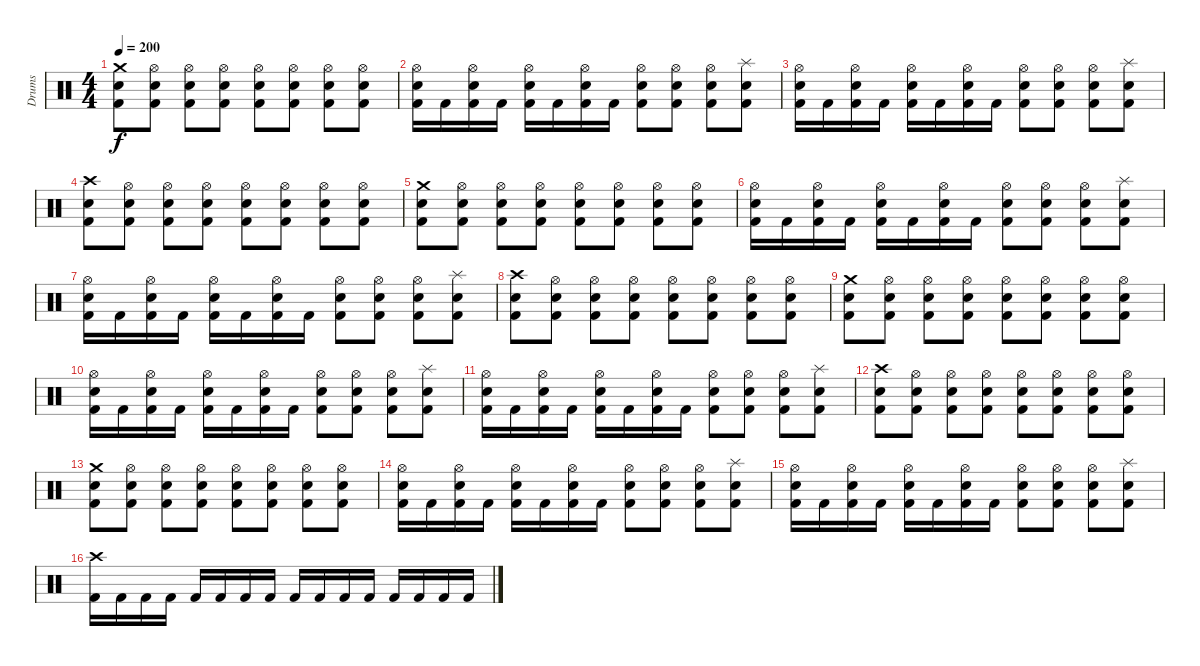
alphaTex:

\track ("Drums" "Drums") {instrument percussion}
\staff {score}
\articulation defaults
\ts (4 4)
\tempo 200
\clef neutral
\ks c
("Crash medium (hit)" "Snare (hit) 2" "Kick (hit) 2").8{dy f} ("Hi-Hat (open)" "Snare (hit) 2" "Kick (hit) 2").8 ("Hi-Hat (open)" "Snare (hit) 2" "Kick (hit) 2").8 ("Hi-Hat (open)" "Snare (hit) 2" "Kick (hit) 2").8 ("Hi-Hat (open)" "Snare (hit) 2" "Kick (hit) 2").8 ("Hi-Hat (open)" "Snare (hit) 2" "Kick (hit) 2").8 ("Hi-Hat (open)" "Snare (hit) 2" "Kick (hit) 2").8 ("Hi-Hat (open)" "Snare (hit) 2" "Kick (hit) 2").8 |
("Hi-Hat (open)" "Snare (hit) 2" "Kick (hit) 2").16 "Kick (hit) 2".16 ("Hi-Hat (open)" "Snare (hit) 2" "Kick (hit) 2").16 "Kick (hit) 2".16 ("Hi-Hat (open)" "Snare (hit) 2" "Kick (hit) 2").16 "Kick (hit) 2".16 ("Hi-Hat (open)" "Snare (hit) 2" "Kick (hit) 2").16 "Kick (hit) 2".16 ("Hi-Hat (open)" "Snare (hit) 2" "Kick (hit) 2").8 ("Hi-Hat (open)" "Snare (hit) 2" "Kick (hit) 2").8 ("Hi-Hat (open)" "Snare (hit) 2" "Kick (hit) 2").8 ("Splash (hit)" "Snare (hit) 2" "Kick (hit) 2").8 |
("Hi-Hat (open)" "Snare (hit) 2" "Kick (hit) 2").16 "Kick (hit) 2".16 ("Hi-Hat (open)" "Snare (hit) 2" "Kick (hit) 2").16 "Kick (hit) 2".16 ("Hi-Hat (open)" "Snare (hit) 2" "Kick (hit) 2").16 "Kick (hit) 2".16 ("Hi-Hat (open)" "Snare (hit) 2" "Kick (hit) 2").16 "Kick (hit) 2".16 ("Hi-Hat (open)" "Snare (hit) 2" "Kick (hit) 2").8 ("Hi-Hat (open)" "Snare (hit) 2" "Kick (hit) 2").8 ("Hi-Hat (open)" "Snare (hit) 2" "Kick (hit) 2").8 ("Splash (hit)" "Snare (hit) 2" "Kick (hit) 2").8 |
("Crash high (hit)" "Snare (hit) 2" "Kick (hit) 2").8 ("Hi-Hat (open)" "Snare (hit) 2" "Kick (hit) 2").8 ("Hi-Hat (open)" "Snare (hit) 2" "Kick (hit) 2").8 ("Hi-Hat (open)" "Snare (hit) 2" "Kick (hit) 2").8 ("Hi-Hat (open)" "Snare (hit) 2" "Kick (hit) 2").8 ("Hi-Hat (open)" "Snare (hit) 2" "Kick (hit) 2").8 ("Hi-Hat (open)" "Snare (hit) 2" "Kick (hit) 2").8 ("Hi-Hat (open)" "Snare (hit) 2" "Kick (hit) 2").8 |
("Crash medium (hit)" "Snare (hit) 2" "Kick (hit) 2").8 ("Hi-Hat (open)" "Snare (hit) 2" "Kick (hit) 2").8 ("Hi-Hat (open)" "Snare (hit) 2" "Kick (hit) 2").8 ("Hi-Hat (open)" "Snare (hit) 2" "Kick (hit) 2").8 ("Hi-Hat (open)" "Snare (hit) 2" "Kick (hit) 2").8 ("Hi-Hat (open)" "Snare (hit) 2" "Kick (hit) 2").8 ("Hi-Hat (open)" "Snare (hit) 2" "Kick (hit) 2").8 ("Hi-Hat (open)" "Snare (hit) 2" "Kick (hit) 2").8 |
("Hi-Hat (open)" "Snare (hit) 2" "Kick (hit) 2").16 "Kick (hit) 2".16 ("Hi-Hat (open)" "Snare (hit) 2" "Kick (hit) 2").16 "Kick (hit) 2".16 ("Hi-Hat (open)" "Snare (hit) 2" "Kick (hit) 2").16 "Kick (hit) 2".16 ("Hi-Hat (open)" "Snare (hit) 2" "Kick (hit) 2").16 "Kick (hit) 2".16 ("Hi-Hat (open)" "Snare (hit) 2" "Kick (hit) 2").8 ("Hi-Hat (open)" "Snare (hit) 2" "Kick (hit) 2").8 ("Hi-Hat (open)" "Snare (hit) 2" "Kick (hit) 2").8 ("Splash (hit)" "Snare (hit) 2" "Kick (hit) 2").8 |
("Hi-Hat (open)" "Snare (hit) 2" "Kick (hit) 2").16 "Kick (hit) 2".16 ("Hi-Hat (open)" "Snare (hit) 2" "Kick (hit) 2").16 "Kick (hit) 2".16 ("Hi-Hat (open)" "Snare (hit) 2" "Kick (hit) 2").16 "Kick (hit) 2".16 ("Hi-Hat (open)" "Snare (hit) 2" "Kick (hit) 2").16 "Kick (hit) 2".16 ("Hi-Hat (open)" "Snare (hit) 2" "Kick (hit) 2").8 ("Hi-Hat (open)" "Snare (hit) 2" "Kick (hit) 2").8 ("Hi-Hat (open)" "Snare (hit) 2" "Kick (hit) 2").8 ("Splash (hit)" "Snare (hit) 2" "Kick (hit) 2").8 |
("Crash high (hit)" "Snare (hit) 2" "Kick (hit) 2").8 ("Hi-Hat (open)" "Snare (hit) 2" "Kick (hit) 2").8 ("Hi-Hat (open)" "Snare (hit) 2" "Kick (hit) 2").8 ("Hi-Hat (open)" "Snare (hit) 2" "Kick (hit) 2").8 ("Hi-Hat (open)" "Snare (hit) 2" "Kick (hit) 2").8 ("Hi-Hat (open)" "Snare (hit) 2" "Kick (hit) 2").8 ("Hi-Hat (open)" "Snare (hit) 2" "Kick (hit) 2").8 ("Hi-Hat (open)" "Snare (hit) 2" "Kick (hit) 2").8 |
("Crash medium (hit)" "Snare (hit) 2" "Kick (hit) 2").8 ("Hi-Hat (open)" "Snare (hit) 2" "Kick (hit) 2").8 ("Hi-Hat (open)" "Snare (hit) 2" "Kick (hit) 2").8 ("Hi-Hat (open)" "Snare (hit) 2" "Kick (hit) 2").8 ("Hi-Hat (open)" "Snare (hit) 2" "Kick (hit) 2").8 ("Hi-Hat (open)" "Snare (hit) 2" "Kick (hit) 2").8 ("Hi-Hat (open)" "Snare (hit) 2" "Kick (hit) 2").8 ("Hi-Hat (open)" "Snare (hit) 2" "Kick (hit) 2").8 |
("Hi-Hat (open)" "Snare (hit) 2" "Kick (hit) 2").16 "Kick (hit) 2".16 ("Hi-Hat (open)" "Snare (hit) 2" "Kick (hit) 2").16 "Kick (hit) 2".16 ("Hi-Hat (open)" "Snare (hit) 2" "Kick (hit) 2").16 "Kick (hit) 2".16 ("Hi-Hat (open)" "Snare (hit) 2" "Kick (hit) 2").16 "Kick (hit) 2".16 ("Hi-Hat (open)" "Snare (hit) 2" "Kick (hit) 2").8 ("Hi-Hat (open)" "Snare (hit) 2" "Kick (hit) 2").8 ("Hi-Hat (open)" "Snare (hit) 2" "Kick (hit) 2").8 ("Splash (hit)" "Snare (hit) 2" "Kick (hit) 2").8 |
("Hi-Hat (open)" "Snare (hit) 2" "Kick (hit) 2").16 "Kick (hit) 2".16 ("Hi-Hat (open)" "Snare (hit) 2" "Kick (hit) 2").16 "Kick (hit) 2".16 ("Hi-Hat (open)" "Snare (hit) 2" "Kick (hit) 2").16 "Kick (hit) 2".16 ("Hi-Hat (open)" "Snare (hit) 2" "Kick (hit) 2").16 "Kick (hit) 2".16 ("Hi-Hat (open)" "Snare (hit) 2" "Kick (hit) 2").8 ("Hi-Hat (open)" "Snare (hit) 2" "Kick (hit) 2").8 ("Hi-Hat (open)" "Snare (hit) 2" "Kick (hit) 2").8 ("Splash (hit)" "Snare (hit) 2" "Kick (hit) 2").8 |
("Crash high (hit)" "Snare (hit) 2" "Kick (hit) 2").8 ("Hi-Hat (open)" "Snare (hit) 2" "Kick (hit) 2").8 ("Hi-Hat (open)" "Snare (hit) 2" "Kick (hit) 2").8 ("Hi-Hat (open)" "Snare (hit) 2" "Kick (hit) 2").8 ("Hi-Hat (open)" "Snare (hit) 2" "Kick (hit) 2").8 ("Hi-Hat (open)" "Snare (hit) 2" "Kick (hit) 2").8 ("Hi-Hat (open)" "Snare (hit) 2" "Kick (hit) 2").8 ("Hi-Hat (open)" "Snare (hit) 2" "Kick (hit) 2").8 |
("Crash medium (hit)" "Snare (hit) 2" "Kick (hit) 2").8 ("Hi-Hat (open)" "Snare (hit) 2" "Kick (hit) 2").8 ("Hi-Hat (open)" "Snare (hit) 2" "Kick (hit) 2").8 ("Hi-Hat (open)" "Snare (hit) 2" "Kick (hit) 2").8 ("Hi-Hat (open)" "Snare (hit) 2" "Kick (hit) 2").8 ("Hi-Hat (open)" "Snare (hit) 2" "Kick (hit) 2").8 ("Hi-Hat (open)" "Snare (hit) 2" "Kick (hit) 2").8 ("Hi-Hat (open)" "Snare (hit) 2" "Kick (hit) 2").8 |
("Hi-Hat (open)" "Snare (hit) 2" "Kick (hit) 2").16 "Kick (hit) 2".16 ("Hi-Hat (open)" "Snare (hit) 2" "Kick (hit) 2").16 "Kick (hit) 2".16 ("Hi-Hat (open)" "Snare (hit) 2" "Kick (hit) 2").16 "Kick (hit) 2".16 ("Hi-Hat (open)" "Snare (hit) 2" "Kick (hit) 2").16 "Kick (hit) 2".16 ("Hi-Hat (open)" "Snare (hit) 2" "Kick (hit) 2").8 ("Hi-Hat (open)" "Snare (hit) 2" "Kick (hit) 2").8 ("Hi-Hat (open)" "Snare (hit) 2" "Kick (hit) 2").8 ("Splash (hit)" "Snare (hit) 2" "Kick (hit) 2").8 |
("Hi-Hat (open)" "Snare (hit) 2" "Kick (hit) 2").16 "Kick (hit) 2".16 ("Hi-Hat (open)" "Snare (hit) 2" "Kick (hit) 2").16 "Kick (hit) 2".16 ("Hi-Hat (open)" "Snare (hit) 2" "Kick (hit) 2").16 "Kick (hit) 2".16 ("Hi-Hat (open)" "Snare (hit) 2" "Kick (hit) 2").16 "Kick (hit) 2".16 ("Hi-Hat (open)" "Snare (hit) 2" "Kick (hit) 2").8 ("Hi-Hat (open)" "Snare (hit) 2" "Kick (hit) 2").8 ("Hi-Hat (open)" "Snare (hit) 2" "Kick (hit) 2").8 ("Splash (hit)" "Snare (hit) 2" "Kick (hit) 2").8 |
("Crash high (hit)" "Kick (hit) 2").16 "Kick (hit) 2".16 "Kick (hit) 2".16 "Kick (hit) 2".16 "Kick (hit) 2".16 "Kick (hit) 2".16 "Kick (hit) 2".16 "Kick (hit) 2".16 "Kick (hit) 2".16 "Kick (hit) 2".16 "Kick (hit) 2".16 "Kick (hit) 2".16 "Kick (hit) 2".16 "Kick (hit) 2".16 "Kick (hit) 2".16 "Kick (hit) 2".16
